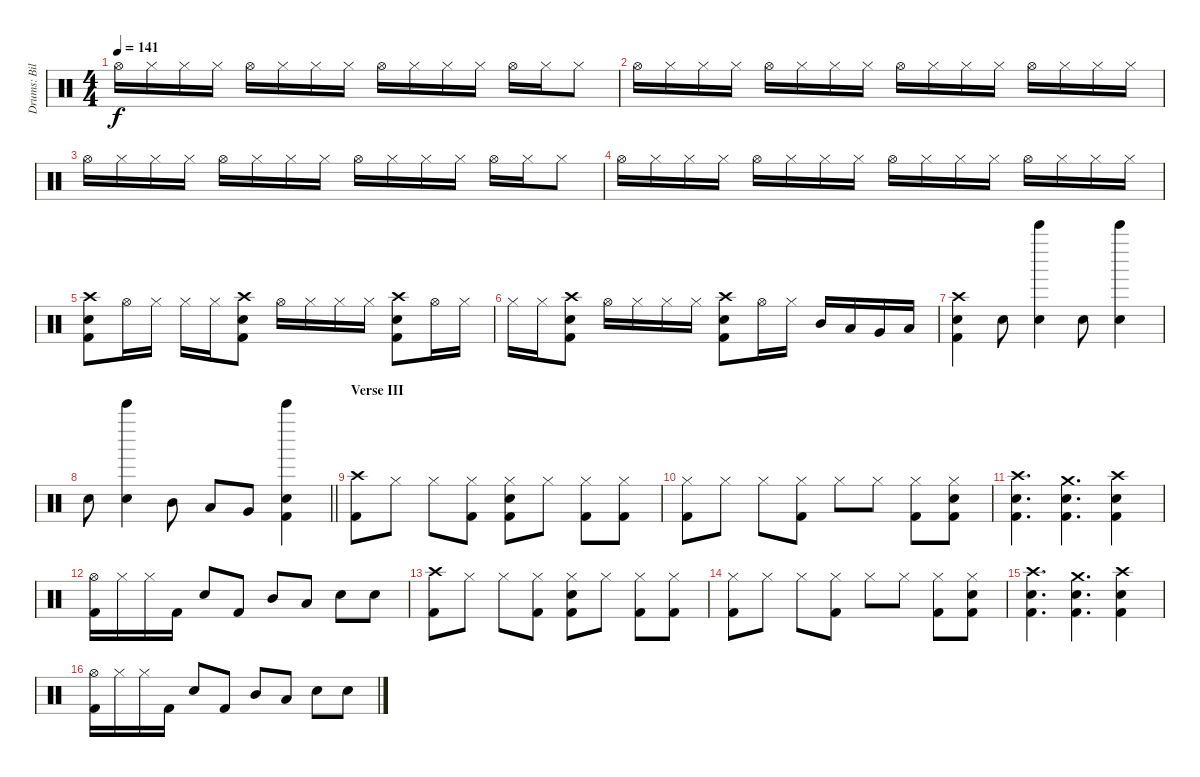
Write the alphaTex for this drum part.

\track ("Drums: Bill" "Drums: Bil") {instrument percussion}
\staff {score}
\articulation defaults
\ts (4 4)
\tempo 141
\clef neutral
\ks c "Hi-Hat (open)".16{dy f} "Hi-Hat (closed)".16 "Hi-Hat (closed)".16 "Hi-Hat (closed)".16 "Hi-Hat (open)".16 "Hi-Hat (closed)".16 "Hi-Hat (closed)".16 "Hi-Hat (closed)".16 "Hi-Hat (open)".16 "Hi-Hat (closed)".16 "Hi-Hat (closed)".16 "Hi-Hat (closed)".16 "Hi-Hat (open)".16 "Hi-Hat (closed)".16 "Hi-Hat (closed)".8
|
"Hi-Hat (open)".16 "Hi-Hat (closed)".16 "Hi-Hat (closed)".16 "Hi-Hat (closed)".16 "Hi-Hat (open)".16 "Hi-Hat (closed)".16 "Hi-Hat (closed)".16 "Hi-Hat (closed)".16 "Hi-Hat (open)".16 "Hi-Hat (closed)".16 "Hi-Hat (closed)".16 "Hi-Hat (closed)".16 "Hi-Hat (open)".16 "Hi-Hat (closed)".16 "Hi-Hat (closed)".16 "Hi-Hat (closed)".16 |
"Hi-Hat (open)".16 "Hi-Hat (closed)".16 "Hi-Hat (closed)".16 "Hi-Hat (closed)".16 "Hi-Hat (open)".16 "Hi-Hat (closed)".16 "Hi-Hat (closed)".16 "Hi-Hat (closed)".16 "Hi-Hat (open)".16 "Hi-Hat (closed)".16 "Hi-Hat (closed)".16 "Hi-Hat (closed)".16 "Hi-Hat (open)".16 "Hi-Hat (closed)".16 "Hi-Hat (closed)".8 |
"Hi-Hat (open)".16 "Hi-Hat (closed)".16 "Hi-Hat (closed)".16 "Hi-Hat (closed)".16 "Hi-Hat (open)".16 "Hi-Hat (closed)".16 "Hi-Hat (closed)".16 "Hi-Hat (closed)".16 "Hi-Hat (open)".16 "Hi-Hat (closed)".16 "Hi-Hat (closed)".16 "Hi-Hat (closed)".16 "Hi-Hat (open)".16 "Hi-Hat (closed)".16 "Hi-Hat (closed)".16 "Hi-Hat (closed)".16 |
("Crash high (hit)" "Snare (hit) 2" "Kick (hit) 2").8 "Hi-Hat (open)".16 "Hi-Hat (closed)".16 "Hi-Hat (closed)".16 "Hi-Hat (closed)".16 ("Crash high (hit)" "Snare (hit) 2" "Kick (hit) 2").8 "Hi-Hat (open)".16 "Hi-Hat (closed)".16 "Hi-Hat (closed)".16 "Hi-Hat (closed)".16 ("Crash high (hit)" "Snare (hit) 2" "Kick (hit) 2").8 "Hi-Hat (open)".16 "Hi-Hat (closed)".16 |
"Hi-Hat (closed)".16 "Hi-Hat (closed)".16 ("Crash high (hit)" "Snare (hit) 2" "Kick (hit) 2").8 "Hi-Hat (open)".16 "Hi-Hat (closed)".16 "Hi-Hat (closed)".16 "Hi-Hat (closed)".16 ("Crash high (hit)" "Snare (hit) 2" "Kick (hit) 2").8 "Hi-Hat (open)".16 "Hi-Hat (closed)".16 "Mid Tom (hit)".16 "Low Tom (hit)".16 "Very Low Tom (hit)".16 "Low Floor Tom (hit)".16 |
("Crash high (hit)" "Snare (hit) 2" "Kick (hit) 2").4 "Snare (hit) 2".8 ("Bell Tree (hit)" "Snare (hit) 2").4 "Snare (hit) 2".8 ("Bell Tree (hit)" "Snare (hit) 2").4 |
\barLineRight lightlight "Snare (hit) 2".8
("Bell Tree (hit)" "Snare (hit) 2").4 "Mid Tom (hit)".8 "Low Tom (hit)".8 "Very Low Tom (hit)".8 ("Bell Tree (hit)" "Snare (hit) 2" "Kick (hit) 2").4 |
\section ("" "Verse III")
("Crash high (hit)" "Kick (hit) 2").8 "Hi-Hat (closed)".8 "Hi-Hat (closed)".8 ("Hi-Hat (closed)" "Kick (hit) 2").8 ("Hi-Hat (closed)" "Snare (hit) 2" "Kick (hit) 2").8 "Hi-Hat (closed)".8 ("Hi-Hat (closed)" "Kick (hit) 2").8 ("Hi-Hat (closed)" "Kick (hit) 2").8 |
("Hi-Hat (closed)" "Kick (hit) 2").8 "Hi-Hat (closed)".8 "Hi-Hat (closed)".8 ("Hi-Hat (closed)" "Kick (hit) 2").8 "Hi-Hat (closed)".8 "Hi-Hat (closed)".8 ("Hi-Hat (closed)" "Kick (hit) 2").8 ("Hi-Hat (closed)" "Snare (hit) 2" "Kick (hit) 2").8 |
("Crash high (hit)" "Snare (hit) 2" "Kick (hit) 2").4{d} ("Crash medium (hit)" "Snare (hit) 2" "Kick (hit) 2").4{d} ("Crash high (hit)" "Snare (hit) 2" "Kick (hit) 2").4 |
("Hi-Hat (open)" "Kick (hit) 2").16 "Hi-Hat (closed)".16 "Hi-Hat (closed)".16 "Kick (hit) 2".16 "Snare (hit) 2".8 "Kick (hit) 2".8 "Mid Tom (hit)".8 "Low Tom (hit)".8 "Snare (hit) 2".8 "Snare (hit) 2".8 |
("Crash high (hit)" "Kick (hit) 2").8 "Hi-Hat (closed)".8 "Hi-Hat (closed)".8 ("Hi-Hat (closed)" "Kick (hit) 2").8 ("Hi-Hat (closed)" "Snare (hit) 2" "Kick (hit) 2").8 "Hi-Hat (closed)".8 ("Hi-Hat (closed)" "Kick (hit) 2").8 ("Hi-Hat (closed)" "Kick (hit) 2").8 |
("Hi-Hat (closed)" "Kick (hit) 2").8 "Hi-Hat (closed)".8 "Hi-Hat (closed)".8 ("Hi-Hat (closed)" "Kick (hit) 2").8 "Hi-Hat (closed)".8 "Hi-Hat (closed)".8 ("Hi-Hat (closed)" "Kick (hit) 2").8 ("Hi-Hat (closed)" "Snare (hit) 2" "Kick (hit) 2").8 |
("Crash high (hit)" "Snare (hit) 2" "Kick (hit) 2").4{d} ("Crash medium (hit)" "Snare (hit) 2" "Kick (hit) 2").4{d} ("Crash high (hit)" "Snare (hit) 2" "Kick (hit) 2").4 |
("Hi-Hat (open)" "Kick (hit) 2").16 "Hi-Hat (closed)".16 "Hi-Hat (closed)".16 "Kick (hit) 2".16 "Snare (hit) 2".8 "Kick (hit) 2".8 "Mid Tom (hit)".8 "Low Tom (hit)".8 "Snare (hit) 2".8 "Snare (hit) 2".8
